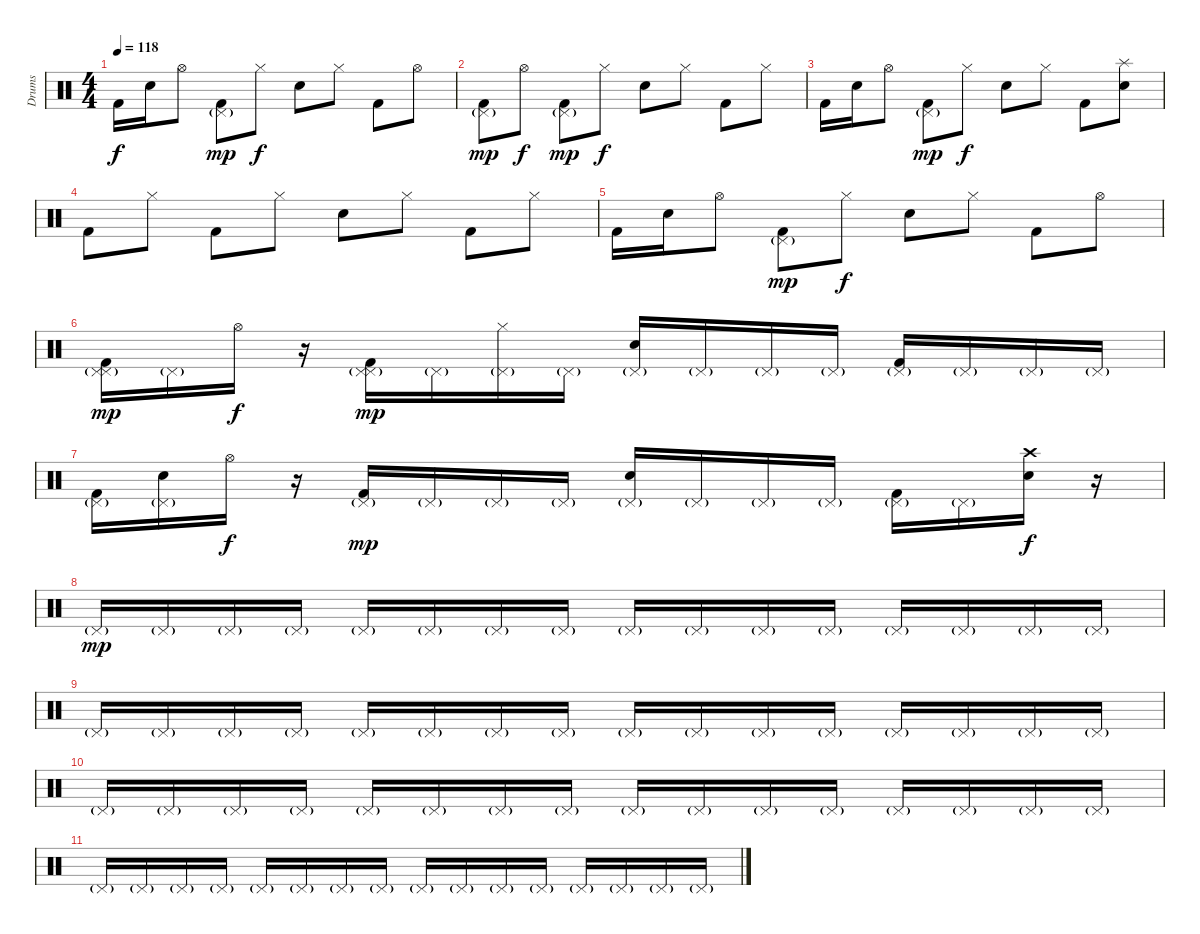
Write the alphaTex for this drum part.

\track ("Drums" "Drums") {instrument percussion bank 5}
\staff {score}
\articulation defaults
\ts (4 4)
\tempo 118
\clef neutral
\ks c "Kick (hit) 2".16{dy f} "Snare (hit) 2".16 "Hi-Hat (open)".8
("Pedal Hi-Hat (hit)"{g} "Kick (hit) 2").8{dy mp} "Hi-Hat (closed)".8{dy f} "Snare (hit) 2".8 "Hi-Hat (closed)".8 "Kick (hit) 2".8 "Hi-Hat (open)".8 |
("Pedal Hi-Hat (hit)"{g} "Kick (hit) 2").8{dy mp} "Hi-Hat (open)".8{dy f} ("Pedal Hi-Hat (hit)"{g} "Kick (hit) 2").8{dy mp} "Hi-Hat (closed)".8{dy f} "Snare (hit) 2".8 "Hi-Hat (closed)".8 "Kick (hit) 2".8 "Hi-Hat (closed)".8 |
"Kick (hit) 2".16 "Snare (hit) 2".16 "Hi-Hat (open)".8 ("Pedal Hi-Hat (hit)"{g} "Kick (hit) 2").8{dy mp} "Hi-Hat (closed)".8{dy f} "Snare (hit) 2".8 "Hi-Hat (closed)".8 "Kick (hit) 2".8 ("Splash (hit)" "Snare (hit) 2").8 |
"Kick (hit) 2".8 "Hi-Hat (closed)".8 "Kick (hit) 2".8 "Hi-Hat (closed)".8 "Snare (hit) 2".8 "Hi-Hat (closed)".8 "Kick (hit) 2".8 "Hi-Hat (closed)".8 |
"Kick (hit) 2".16 "Snare (hit) 2".16 "Hi-Hat (open)".8 ("Pedal Hi-Hat (hit)"{g} "Kick (hit) 2").8{dy mp} "Hi-Hat (closed)".8{dy f} "Snare (hit) 2".8 "Hi-Hat (closed)".8 "Kick (hit) 2".8 "Hi-Hat (open)".8 |
("Pedal Hi-Hat (hit)"{g} "Pedal Hi-Hat (hit)"{g} "Kick (hit) 2").16{dy mp} "Pedal Hi-Hat (hit)"{g}.16 "Hi-Hat (open)".16{dy f} r.16 ("Pedal Hi-Hat (hit)"{g} "Pedal Hi-Hat (hit)"{g} "Kick (hit) 2").16{dy mp} "Pedal Hi-Hat (hit)"{g}.16 ("Hi-Hat (closed)" "Pedal Hi-Hat (hit)"{g}).16 "Pedal Hi-Hat (hit)"{g}.16 ("Pedal Hi-Hat (hit)"{g} "Snare (hit) 2").16 "Pedal Hi-Hat (hit)"{g}.16 "Pedal Hi-Hat (hit)"{g}.16 "Pedal Hi-Hat (hit)"{g}.16 ("Pedal Hi-Hat (hit)"{g} "Kick (hit) 2").16 "Pedal Hi-Hat (hit)"{g}.16 "Pedal Hi-Hat (hit)"{g}.16 "Pedal Hi-Hat (hit)"{g}.16 |
("Pedal Hi-Hat (hit)"{g} "Kick (hit) 2").16 ("Pedal Hi-Hat (hit)"{g} "Snare (hit) 2").16 "Hi-Hat (open)".16{dy f} r.16 ("Pedal Hi-Hat (hit)"{g} "Kick (hit) 2").16{dy mp} "Pedal Hi-Hat (hit)"{g}.16 "Pedal Hi-Hat (hit)"{g}.16 "Pedal Hi-Hat (hit)"{g}.16 ("Pedal Hi-Hat (hit)"{g} "Snare (hit) 2").16 "Pedal Hi-Hat (hit)"{g}.16 "Pedal Hi-Hat (hit)"{g}.16 "Pedal Hi-Hat (hit)"{g}.16 ("Pedal Hi-Hat (hit)"{g} "Kick (hit) 2").16 "Pedal Hi-Hat (hit)"{g}.16 ("Crash high (hit)" "Snare (hit) 2").16{dy f} r.16 |
"Pedal Hi-Hat (hit)"{g}.16{dy mp} "Pedal Hi-Hat (hit)"{g}.16 "Pedal Hi-Hat (hit)"{g}.16 "Pedal Hi-Hat (hit)"{g}.16 "Pedal Hi-Hat (hit)"{g}.16 "Pedal Hi-Hat (hit)"{g}.16 "Pedal Hi-Hat (hit)"{g}.16 "Pedal Hi-Hat (hit)"{g}.16 "Pedal Hi-Hat (hit)"{g}.16 "Pedal Hi-Hat (hit)"{g}.16 "Pedal Hi-Hat (hit)"{g}.16 "Pedal Hi-Hat (hit)"{g}.16 "Pedal Hi-Hat (hit)"{g}.16 "Pedal Hi-Hat (hit)"{g}.16 "Pedal Hi-Hat (hit)"{g}.16 "Pedal Hi-Hat (hit)"{g}.16 |
"Pedal Hi-Hat (hit)"{g}.16 "Pedal Hi-Hat (hit)"{g}.16 "Pedal Hi-Hat (hit)"{g}.16 "Pedal Hi-Hat (hit)"{g}.16 "Pedal Hi-Hat (hit)"{g}.16 "Pedal Hi-Hat (hit)"{g}.16 "Pedal Hi-Hat (hit)"{g}.16 "Pedal Hi-Hat (hit)"{g}.16 "Pedal Hi-Hat (hit)"{g}.16 "Pedal Hi-Hat (hit)"{g}.16 "Pedal Hi-Hat (hit)"{g}.16 "Pedal Hi-Hat (hit)"{g}.16 "Pedal Hi-Hat (hit)"{g}.16 "Pedal Hi-Hat (hit)"{g}.16 "Pedal Hi-Hat (hit)"{g}.16 "Pedal Hi-Hat (hit)"{g}.16 |
"Pedal Hi-Hat (hit)"{g}.16 "Pedal Hi-Hat (hit)"{g}.16 "Pedal Hi-Hat (hit)"{g}.16 "Pedal Hi-Hat (hit)"{g}.16 "Pedal Hi-Hat (hit)"{g}.16 "Pedal Hi-Hat (hit)"{g}.16 "Pedal Hi-Hat (hit)"{g}.16 "Pedal Hi-Hat (hit)"{g}.16 "Pedal Hi-Hat (hit)"{g}.16 "Pedal Hi-Hat (hit)"{g}.16 "Pedal Hi-Hat (hit)"{g}.16 "Pedal Hi-Hat (hit)"{g}.16 "Pedal Hi-Hat (hit)"{g}.16 "Pedal Hi-Hat (hit)"{g}.16 "Pedal Hi-Hat (hit)"{g}.16 "Pedal Hi-Hat (hit)"{g}.16 |
"Pedal Hi-Hat (hit)"{g}.16 "Pedal Hi-Hat (hit)"{g}.16 "Pedal Hi-Hat (hit)"{g}.16 "Pedal Hi-Hat (hit)"{g}.16 "Pedal Hi-Hat (hit)"{g}.16 "Pedal Hi-Hat (hit)"{g}.16 "Pedal Hi-Hat (hit)"{g}.16 "Pedal Hi-Hat (hit)"{g}.16 "Pedal Hi-Hat (hit)"{g}.16 "Pedal Hi-Hat (hit)"{g}.16 "Pedal Hi-Hat (hit)"{g}.16 "Pedal Hi-Hat (hit)"{g}.16 "Pedal Hi-Hat (hit)"{g}.16 "Pedal Hi-Hat (hit)"{g}.16 "Pedal Hi-Hat (hit)"{g}.16 "Pedal Hi-Hat (hit)"{g}.16
